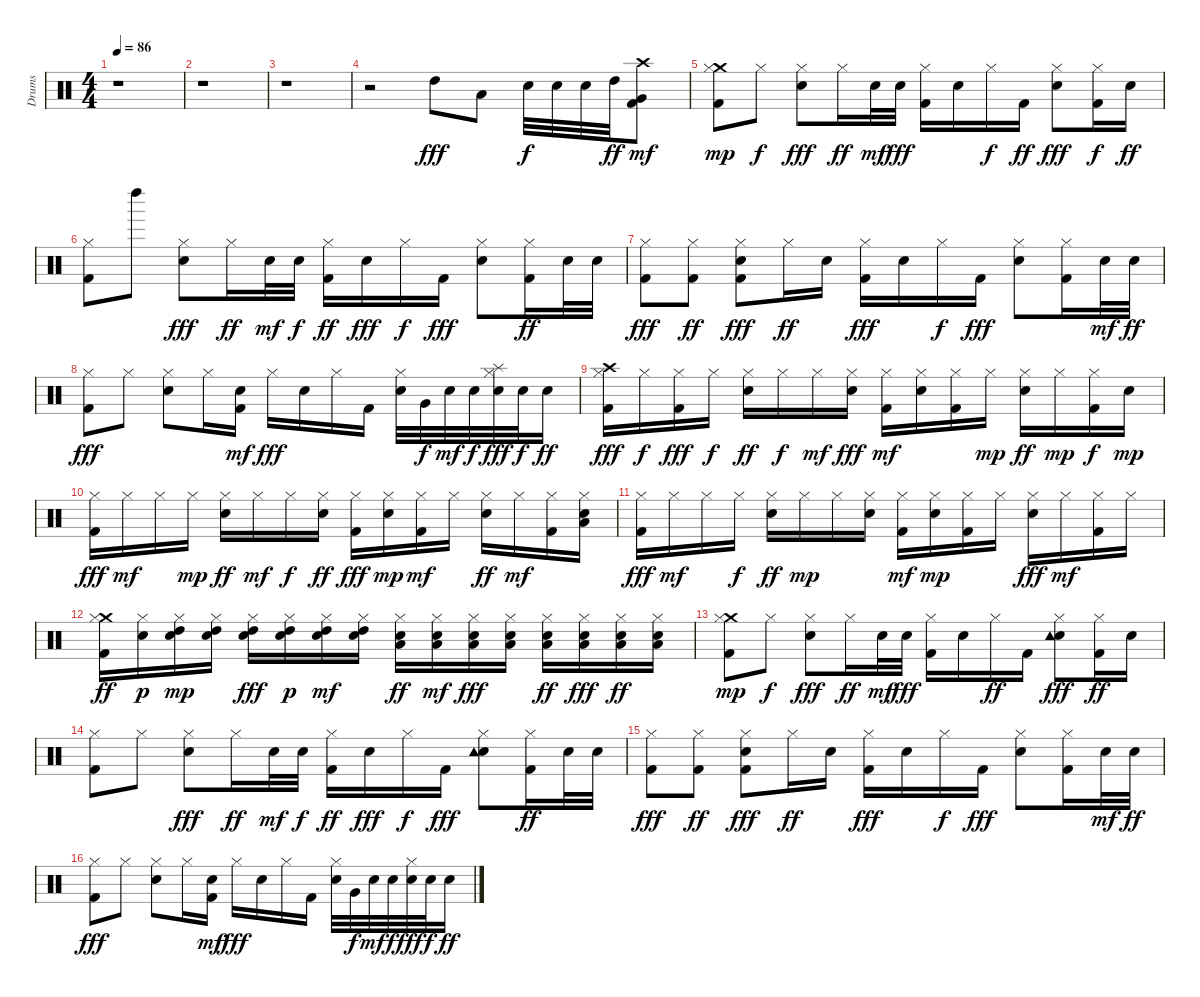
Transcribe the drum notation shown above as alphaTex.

\track ("Drums" "Drums") {instrument percussion}
\staff {score}
\articulation defaults
\ts (4 4)
\tempo 86
\clef neutral
\ks c
r.1{dy fff} |
r.1 |
r.1 |
r.2 "High Tom (hit)".8 "Low Tom (hit)".8 "Snare (hit) 2".32{dy f} "Snare (hit) 2".32 "Snare (hit) 2".32 "High Tom (hit)".32{dy ff} ("Kick (hit) 2" "Very Low Tom (hit)" "Crash high (hit)").8{dy mf} |
("Kick (hit) 2" "Crash medium (hit)" "Hi-Hat (closed)").8{dy mp} "Hi-Hat (closed)".8{dy f} ("Snare (hit) 2" "Hi-Hat (closed)").8{dy fff} "Hi-Hat (closed)".16{dy ff} "Snare (hit) 2".32{dy mf} "Snare (hit) 2".32{dy fff} ("Kick (hit) 2" "Hi-Hat (closed)").16 "Snare (hit) 2".16 "Hi-Hat (closed)".16{dy f} "Kick (hit) 2".16{dy ff} ("Snare (hit) 2" "Hi-Hat (closed)").8{dy fff} ("Kick (hit) 2" "Hi-Hat (closed)").16{dy f} "Snare (hit) 2".16{dy ff} |
("Kick (hit) 2" "Hi-Hat (closed)").8 "Left Maraca (hit)".8 ("Snare (hit) 2" "Hi-Hat (closed)").8{dy fff} "Hi-Hat (closed)".16{dy ff} "Snare (hit) 2".32{dy mf} "Snare (hit) 2".32{dy f} ("Kick (hit) 2" "Hi-Hat (closed)").16{dy ff} "Snare (hit) 2".16{dy fff} "Hi-Hat (closed)".16{dy f} "Kick (hit) 2".16{dy fff} ("Snare (hit) 2" "Hi-Hat (closed)").8 ("Kick (hit) 2" "Hi-Hat (closed)").16{dy ff} "Snare (hit) 2".32 "Snare (hit) 2".32 |
("Kick (hit) 2" "Hi-Hat (closed)").8{dy fff} ("Kick (hit) 2" "Hi-Hat (closed)").8{dy ff} ("Kick (hit) 2" "Snare (hit) 2" "Hi-Hat (closed)").8{dy fff} "Hi-Hat (closed)".16{dy ff} "Snare (hit) 2".16 ("Kick (hit) 2" "Hi-Hat (closed)").16{dy fff} "Snare (hit) 2".16 "Hi-Hat (closed)".16{dy f} "Kick (hit) 2".16{dy fff} ("Snare (hit) 2" "Hi-Hat (closed)").8 ("Kick (hit) 2" "Hi-Hat (closed)").16 "Snare (hit) 2".32{dy mf} "Snare (hit) 2".32{dy ff} |
("Kick (hit) 2" "Hi-Hat (closed)").8{dy fff} "Hi-Hat (closed)".8 ("Snare (hit) 2" "Hi-Hat (closed)").8 "Hi-Hat (closed)".16 ("Kick (hit) 2" "Snare (hit) 2").16{dy mf} "Hi-Hat (closed)".16{dy fff} "Snare (hit) 2".16 "Hi-Hat (closed)".16 "Kick (hit) 2".16 ("Snare (hit) 2" "Hi-Hat (closed)").32 "Very Low Tom (hit)".32{dy f} "Snare (hit) 2".32{dy mf} "Snare (hit) 2".32{dy f} ("Snare (hit) 2" "Splash (hit)" "Hi-Hat (closed)").32{dy fff} "Snare (hit) 2".32{dy f} "Snare (hit) 2".16{dy ff} |
("Kick (hit) 2" "Crash high (hit)" "Hi-Hat (closed)").16{dy fff} "Hi-Hat (closed)".16{dy f} ("Kick (hit) 2" "Hi-Hat (closed)").16{dy fff} "Hi-Hat (closed)".16{dy f} ("Snare (hit) 2" "Hi-Hat (closed)").16{dy ff} "Hi-Hat (closed)".16{dy f} "Hi-Hat (closed)".16{dy mf} ("Snare (hit) 2" "Hi-Hat (closed)").16{dy fff} ("Kick (hit) 2" "Hi-Hat (closed)").16{dy mf} ("Snare (hit) 2" "Hi-Hat (closed)").16 ("Kick (hit) 2" "Hi-Hat (closed)").16 "Hi-Hat (closed)".16{dy mp} ("Snare (hit) 2" "Hi-Hat (closed)").16{dy ff} "Hi-Hat (closed)".16{dy mp} ("Kick (hit) 2" "Hi-Hat (closed)").16{dy f} "Snare (hit) 2".16{dy mp} |
("Kick (hit) 2" "Hi-Hat (closed)").16{dy fff} "Hi-Hat (closed)".16{dy mf} "Hi-Hat (closed)".16 "Hi-Hat (closed)".16{dy mp} ("Snare (hit) 2" "Hi-Hat (closed)").16{dy ff} "Hi-Hat (closed)".16{dy mf} "Hi-Hat (closed)".16{dy f} ("Snare (hit) 2" "Hi-Hat (closed)").16{dy ff} ("Kick (hit) 2" "Hi-Hat (closed)").16{dy fff} ("Snare (hit) 2" "Hi-Hat (closed)").16{dy mp} ("Kick (hit) 2" "Hi-Hat (closed)").16{dy mf} "Hi-Hat (closed)".16 ("Snare (hit) 2" "Hi-Hat (closed)").16{dy ff} "Hi-Hat (closed)".16{dy mf} ("Kick (hit) 2" "Hi-Hat (closed)").16 ("Snare (hit) 2" "Low Tom (hit)" "Hi-Hat (closed)").16 |
("Kick (hit) 2" "Hi-Hat (closed)").16{dy fff} "Hi-Hat (closed)".16{dy mf} "Hi-Hat (closed)".16 "Hi-Hat (closed)".16{dy f} ("Snare (hit) 2" "Hi-Hat (closed)").16{dy ff} "Hi-Hat (closed)".16{dy mp} "Hi-Hat (closed)".16 ("Snare (hit) 2" "Hi-Hat (closed)").16 ("Kick (hit) 2" "Hi-Hat (closed)").16{dy mf} ("Snare (hit) 2" "Hi-Hat (closed)").16{dy mp} ("Kick (hit) 2" "Hi-Hat (closed)").16 "Hi-Hat (closed)".16 ("Snare (hit) 2" "Hi-Hat (closed)").16{dy fff} "Hi-Hat (closed)".16{dy mf} ("Kick (hit) 2" "Hi-Hat (closed)").16 "Hi-Hat (closed)".16 |
("Kick (hit) 2" "Crash medium (hit)" "Hi-Hat (closed)").16{dy ff} ("Snare (hit) 2" "Hi-Hat (closed)").16{dy p} ("Snare (hit) 2" "High Tom (hit)" "Hi-Hat (closed)").16{dy mp} ("Snare (hit) 2" "High Tom (hit)" "Hi-Hat (closed)").16 ("Snare (hit) 2" "High Tom (hit)" "Hi-Hat (closed)").16{dy fff} ("Snare (hit) 2" "High Tom (hit)" "Hi-Hat (closed)").16{dy p} ("Snare (hit) 2" "High Tom (hit)" "Hi-Hat (closed)").16{dy mf} ("Snare (hit) 2" "High Tom (hit)" "Hi-Hat (closed)").16 ("Snare (hit) 2" "Low Tom (hit)" "Hi-Hat (closed)").16{dy ff} ("Snare (hit) 2" "Low Tom (hit)" "Hi-Hat (closed)").16{dy mf} ("Snare (hit) 2" "Low Tom (hit)" "Hi-Hat (closed)").16{dy fff} ("Snare (hit) 2" "Low Tom (hit)" "Hi-Hat (closed)").16 ("Snare (hit) 2" "Low Floor Tom (hit)" "Hi-Hat (closed)").16{dy ff} ("Snare (hit) 2" "Low Floor Tom (hit)" "Hi-Hat (closed)").16{dy fff} ("Snare (hit) 2" "Low Floor Tom (hit)" "Hi-Hat (closed)").16{dy ff} ("Snare (hit) 2" "Low Floor Tom (hit)" "Hi-Hat (closed)").16 |
("Kick (hit) 2" "Crash medium (hit)" "Hi-Hat (closed)").8{dy mp} "Hi-Hat (closed)".8{dy f} ("Snare (hit) 2" "Hi-Hat (closed)").8{dy fff} "Hi-Hat (closed)".16{dy ff} "Snare (hit) 2".32{dy mf} "Snare (hit) 2".32{dy fff} ("Kick (hit) 2" "Hi-Hat (closed)").16 "Snare (hit) 2".16 "Hi-Hat (closed)".16{dy ff} "Kick (hit) 2".16 ("Snare (hit) 2" "Tambourine (hit)" "Hi-Hat (closed)").8{dy fff} ("Kick (hit) 2" "Hi-Hat (closed)").16{dy ff} "Snare (hit) 2".16 |
("Kick (hit) 2" "Hi-Hat (closed)").8 "Hi-Hat (closed)".8 ("Snare (hit) 2" "Hi-Hat (closed)").8{dy fff} "Hi-Hat (closed)".16{dy ff} "Snare (hit) 2".32{dy mf} "Snare (hit) 2".32{dy f} ("Kick (hit) 2" "Hi-Hat (closed)").16{dy ff} "Snare (hit) 2".16{dy fff} "Hi-Hat (closed)".16{dy f} "Kick (hit) 2".16{dy fff} ("Snare (hit) 2" "Tambourine (hit)" "Hi-Hat (closed)").8 ("Kick (hit) 2" "Hi-Hat (closed)").16{dy ff} "Snare (hit) 2".32 "Snare (hit) 2".32 |
("Kick (hit) 2" "Hi-Hat (closed)").8{dy fff} ("Kick (hit) 2" "Hi-Hat (closed)").8{dy ff} ("Kick (hit) 2" "Snare (hit) 2" "Hi-Hat (closed)").8{dy fff} "Hi-Hat (closed)".16{dy ff} "Snare (hit) 2".16 ("Kick (hit) 2" "Hi-Hat (closed)").16{dy fff} "Snare (hit) 2".16 "Hi-Hat (closed)".16{dy f} "Kick (hit) 2".16{dy fff} ("Snare (hit) 2" "Hi-Hat (closed)").8 ("Kick (hit) 2" "Hi-Hat (closed)").16 "Snare (hit) 2".32{dy mf} "Snare (hit) 2".32{dy ff} |
("Kick (hit) 2" "Hi-Hat (closed)").8{dy fff} "Hi-Hat (closed)".8 ("Snare (hit) 2" "Hi-Hat (closed)").8 "Hi-Hat (closed)".16 ("Kick (hit) 2" "Snare (hit) 2").16{dy mf} "Hi-Hat (closed)".16{dy fff} "Snare (hit) 2".16 "Hi-Hat (closed)".16 "Kick (hit) 2".16 ("Snare (hit) 2" "Hi-Hat (closed)").32 "Very Low Tom (hit)".32{dy f} "Snare (hit) 2".32{dy mf} "Snare (hit) 2".32{dy f} ("Snare (hit) 2" "Hi-Hat (closed)").32{dy fff} "Snare (hit) 2".32{dy f} "Snare (hit) 2".16{dy ff}
